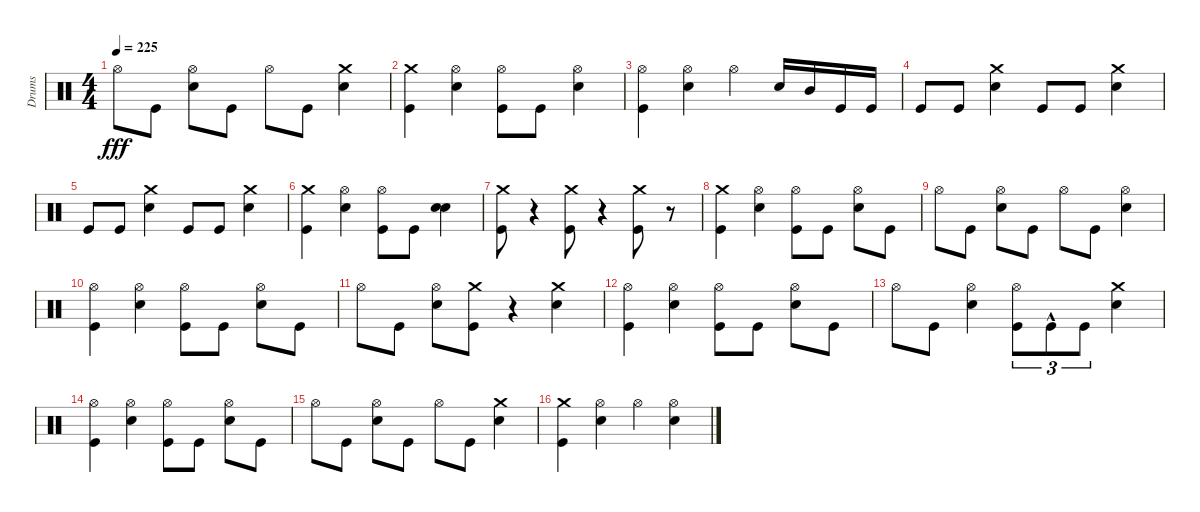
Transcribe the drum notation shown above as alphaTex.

\track ("Drums" "Drums") {instrument percussion}
\staff {score}
\articulation defaults
\ts (4 4)
\tempo 225
\clef neutral
\ks c "Hi-Hat (open)".8{dy fff} "Kick (hit)".8
("Snare (hit) 2" "Hi-Hat (open)").8 "Kick (hit)".8 "Hi-Hat (open)".8 "Kick (hit)".8 ("Crash medium (hit)" "Snare (hit) 2").4 |
("Kick (hit)" "Crash medium (hit)").4 ("Snare (hit) 2" "Hi-Hat (open)").4 ("Kick (hit)" "Hi-Hat (open)").8 "Kick (hit)".8 ("Snare (hit) 2" "Hi-Hat (open)").4 |
("Kick (hit)" "Hi-Hat (open)").4 ("Snare (hit) 2" "Hi-Hat (open)").4 "Hi-Hat (open)".4 "Snare (hit) 2".16 "Mid Tom (hit)".16 "Kick (hit)".16 "Kick (hit)".16 |
"Kick (hit)".8 "Kick (hit)".8 ("Snare (hit) 2" "Crash medium (hit)").4 "Kick (hit)".8 "Kick (hit)".8 ("Snare (hit) 2" "Crash medium (hit)").4 |
"Kick (hit)".8 "Kick (hit)".8 ("Crash medium (hit)" "Snare (hit) 2").4 "Kick (hit)".8 "Kick (hit)".8 ("Crash medium (hit)" "Snare (hit) 2").4 |
("Kick (hit)" "Crash medium (hit)").4 ("Snare (hit) 2" "Hi-Hat (open)").4 ("Kick (hit)" "Hi-Hat (open)").8 "Kick (hit)".8 ("Snare (hit) 2" "Snare (hit) 2").4 |
("Crash medium (hit)" "Kick (hit)").8 r.4 ("Kick (hit)" "Crash medium (hit)").8 r.4 ("Crash medium (hit)" "Kick (hit)").8 r.8 |
("Kick (hit)" "Crash medium (hit)").4 ("Snare (hit) 2" "Hi-Hat (open)").4 ("Kick (hit)" "Hi-Hat (open)").8 "Kick (hit)".8 ("Snare (hit) 2" "Hi-Hat (open)").8 "Kick (hit)".8 |
"Hi-Hat (open)".8 "Kick (hit)".8 ("Snare (hit) 2" "Hi-Hat (open)").8 "Kick (hit)".8 "Hi-Hat (open)".8 "Kick (hit)".8 ("Snare (hit) 2" "Hi-Hat (open)").4 |
("Kick (hit)" "Hi-Hat (open)").4 ("Snare (hit) 2" "Hi-Hat (open)").4 ("Kick (hit)" "Hi-Hat (open)").8 "Kick (hit)".8 ("Snare (hit) 2" "Hi-Hat (open)").8 "Kick (hit)".8 |
"Hi-Hat (open)".8 "Kick (hit)".8 ("Snare (hit) 2" "Hi-Hat (open)").8 ("Crash medium (hit)" "Kick (hit)").8 r.4 ("Snare (hit) 2" "Crash medium (hit)").4 |
("Kick (hit)" "Hi-Hat (open)").4 ("Snare (hit) 2" "Hi-Hat (open)").4 ("Kick (hit)" "Hi-Hat (open)").8 "Kick (hit)".8 ("Snare (hit) 2" "Hi-Hat (open)").8 "Kick (hit)".8 |
"Hi-Hat (open)".8 "Kick (hit)".8 ("Snare (hit) 2" "Hi-Hat (open)").4 ("Kick (hit)" "Hi-Hat (open)").8{tu (3 2)} "Kick (hit)"{hac}.8{tu (3 2)} "Kick (hit)".8{tu (3 2)} ("Crash medium (hit)" "Snare (hit) 2").4 |
("Kick (hit)" "Hi-Hat (open)").4 ("Snare (hit) 2" "Hi-Hat (open)").4 ("Kick (hit)" "Hi-Hat (open)").8 "Kick (hit)".8 ("Snare (hit) 2" "Hi-Hat (open)").8 "Kick (hit)".8 |
"Hi-Hat (open)".8 "Kick (hit)".8 ("Snare (hit) 2" "Hi-Hat (open)").8 "Kick (hit)".8 "Hi-Hat (open)".8 "Kick (hit)".8 ("Snare (hit) 2" "Crash medium (hit)").4 |
("Kick (hit)" "Crash medium (hit)").4 ("Snare (hit) 2" "Hi-Hat (open)").4 "Hi-Hat (open)".4 ("Snare (hit) 2" "Hi-Hat (open)").4
